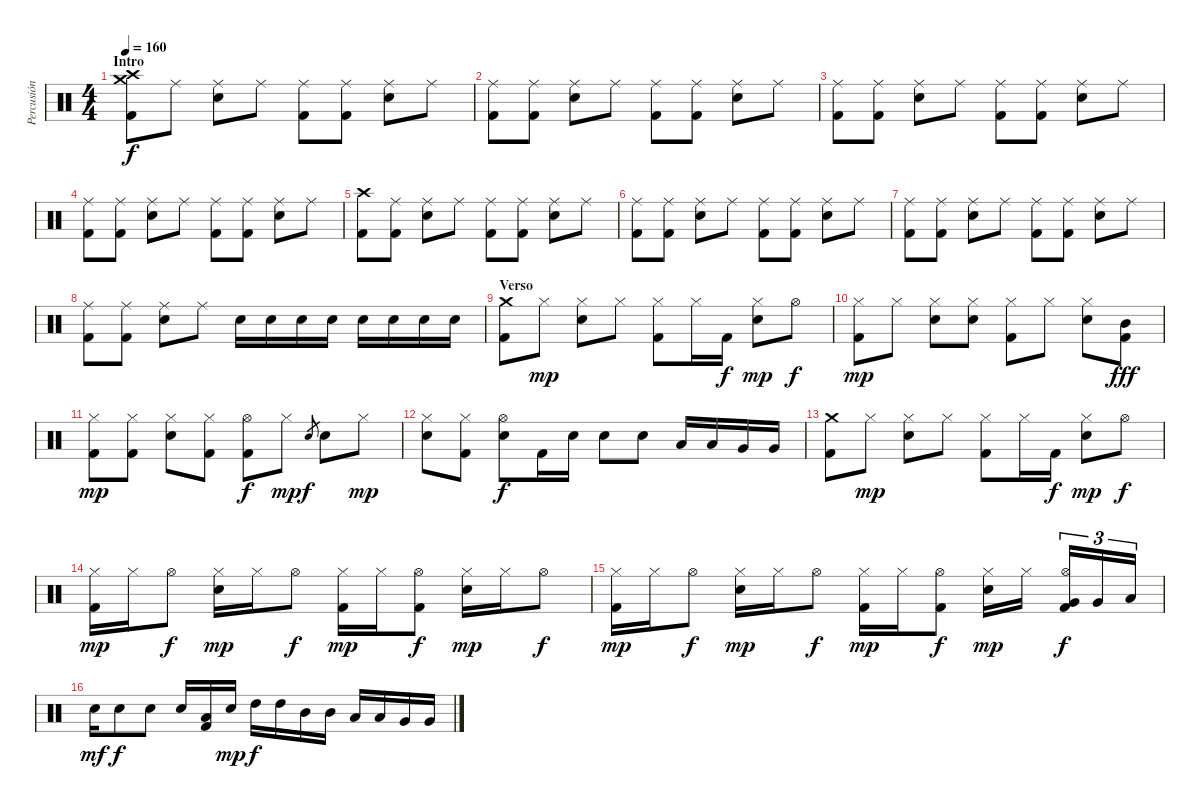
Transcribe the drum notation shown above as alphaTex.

\track ("Percusión" "Percusión") {instrument percussion}
\staff {score}
\articulation defaults
\ts (4 4)
\section ("" "Intro")
\tempo 160
\clef neutral
\ks c
("Crash medium (hit)" "Crash high (hit)" "Kick (hit) 2").8{dy f} "Ride (middle)".8 ("Ride (middle)" "Electric Snare (hit)").8 "Ride (middle)".8 ("Ride (middle)" "Kick (hit) 2").8 ("Ride (middle)" "Kick (hit) 2").8 ("Ride (middle)" "Electric Snare (hit)").8 "Ride (middle)".8 |
("Ride (middle)" "Kick (hit) 2").8 ("Ride (middle)" "Kick (hit) 2").8 ("Ride (middle)" "Electric Snare (hit)").8 "Ride (middle)".8 ("Ride (middle)" "Kick (hit) 2").8 ("Ride (middle)" "Kick (hit) 2").8 ("Ride (middle)" "Electric Snare (hit)").8 "Ride (middle)".8 |
("Ride (middle)" "Kick (hit) 2").8 ("Ride (middle)" "Kick (hit) 2").8 ("Ride (middle)" "Electric Snare (hit)").8 "Ride (middle)".8 ("Ride (middle)" "Kick (hit) 2").8 ("Ride (middle)" "Kick (hit) 2").8 ("Ride (middle)" "Electric Snare (hit)").8 "Ride (middle)".8 |
("Ride (middle)" "Kick (hit) 2").8 ("Ride (middle)" "Kick (hit) 2").8 ("Ride (middle)" "Electric Snare (hit)").8 "Ride (middle)".8 ("Ride (middle)" "Kick (hit) 2").8 ("Ride (middle)" "Kick (hit) 2").8 ("Ride (middle)" "Electric Snare (hit)").8 "Ride (middle)".8 |
("Crash high (hit)" "Kick (hit) 2").8 ("Ride (middle)" "Kick (hit) 2").8 ("Ride (middle)" "Electric Snare (hit)").8 "Ride (middle)".8 ("Ride (middle)" "Kick (hit) 2").8 ("Ride (middle)" "Kick (hit) 2").8 ("Ride (middle)" "Electric Snare (hit)").8 "Ride (middle)".8 |
("Ride (middle)" "Kick (hit) 2").8 ("Ride (middle)" "Kick (hit) 2").8 ("Ride (middle)" "Electric Snare (hit)").8 "Ride (middle)".8 ("Ride (middle)" "Kick (hit) 2").8 ("Ride (middle)" "Kick (hit) 2").8 ("Ride (middle)" "Electric Snare (hit)").8 "Ride (middle)".8 |
("Ride (middle)" "Kick (hit) 2").8 ("Ride (middle)" "Kick (hit) 2").8 ("Ride (middle)" "Electric Snare (hit)").8 "Ride (middle)".8 ("Ride (middle)" "Kick (hit) 2").8 ("Ride (middle)" "Kick (hit) 2").8 ("Ride (middle)" "Electric Snare (hit)").8 "Ride (middle)".8 |
("Ride (middle)" "Kick (hit) 2").8 ("Ride (middle)" "Kick (hit) 2").8 ("Ride (middle)" "Electric Snare (hit)").8 "Ride (middle)".8 "Electric Snare (hit)".16 "Electric Snare (hit)".16 "Electric Snare (hit)".16 "Electric Snare (hit)".16 "Electric Snare (hit)".16 "Electric Snare (hit)".16 "Electric Snare (hit)".16 "Electric Snare (hit)".16 |
\section ("" "Verso")
("Crash medium (hit)" "Kick (hit) 2").8 "Hi-Hat (closed)".8{dy mp} ("Hi-Hat (closed)" "Electric Snare (hit)").8 "Hi-Hat (closed)".8 ("Hi-Hat (closed)" "Kick (hit) 2").8 "Hi-Hat (closed)".16 "Kick (hit) 2".16{dy f} ("Hi-Hat (closed)" "Electric Snare (hit)").8{dy mp} "Hi-Hat (open)".8{dy f} |
("Hi-Hat (closed)" "Kick (hit) 2").8{dy mp} "Hi-Hat (closed)".8 ("Hi-Hat (closed)" "Electric Snare (hit)").8 ("Hi-Hat (closed)" "Electric Snare (hit)").8 ("Hi-Hat (closed)" "Kick (hit) 2").8 "Hi-Hat (closed)".8 ("Hi-Hat (closed)" "Electric Snare (hit)").8 ("Mid Tom (hit)" "Kick (hit) 2").8{dy fff} |
("Hi-Hat (closed)" "Kick (hit) 2").8{dy mp} ("Hi-Hat (closed)" "Kick (hit) 2").8 ("Hi-Hat (closed)" "Electric Snare (hit)").8 ("Hi-Hat (closed)" "Kick (hit) 2").8 ("Hi-Hat (open)" "Kick (hit) 2").8{dy f} "Hi-Hat (closed)".8{dy mp} "Electric Snare (hit)".8{gr dy f} "Electric Snare (hit)".8 "Hi-Hat (closed)".8{dy mp} |
("Hi-Hat (closed)" "Electric Snare (hit)").8 ("Hi-Hat (closed)" "Kick (hit) 2").8 ("Hi-Hat (open)" "Electric Snare (hit)").8{dy f} "Kick (hit) 2".16 "Electric Snare (hit)".16 "Electric Snare (hit)".8 "Electric Snare (hit)".8 "Low Tom (hit)".16 "Low Tom (hit)".16 "Very Low Tom (hit)".16 "Very Low Tom (hit)".16 |
("Crash medium (hit)" "Kick (hit) 2").8 "Hi-Hat (closed)".8{dy mp} ("Hi-Hat (closed)" "Electric Snare (hit)").8 "Hi-Hat (closed)".8 ("Hi-Hat (closed)" "Kick (hit) 2").8 "Hi-Hat (closed)".16 "Kick (hit) 2".16{dy f} ("Hi-Hat (closed)" "Electric Snare (hit)").8{dy mp} "Hi-Hat (open)".8{dy f} |
("Hi-Hat (closed)" "Kick (hit) 2").16{dy mp} "Hi-Hat (closed)".16 "Hi-Hat (open)".8{dy f} ("Hi-Hat (closed)" "Electric Snare (hit)").16{dy mp} "Hi-Hat (closed)".16 "Hi-Hat (open)".8{dy f} ("Hi-Hat (closed)" "Kick (hit) 2").16{dy mp} "Hi-Hat (closed)".16 ("Hi-Hat (open)" "Kick (hit) 2").8{dy f} ("Hi-Hat (closed)" "Electric Snare (hit)").16{dy mp} "Hi-Hat (closed)".16 "Hi-Hat (open)".8{dy f} |
("Hi-Hat (closed)" "Kick (hit) 2").16{dy mp} "Hi-Hat (closed)".16 "Hi-Hat (open)".8{dy f} ("Hi-Hat (closed)" "Electric Snare (hit)").16{dy mp} "Hi-Hat (closed)".16 "Hi-Hat (open)".8{dy f} ("Hi-Hat (closed)" "Kick (hit) 2").16{dy mp} "Hi-Hat (closed)".16 ("Hi-Hat (open)" "Kick (hit) 2").8{dy f} ("Hi-Hat (closed)" "Electric Snare (hit)").16{dy mp} "Hi-Hat (closed)".16 ("Very Low Tom (hit)" "Hi-Hat (open)" "Kick (hit) 2").16{tu (3 2) dy f} "Very Low Tom (hit)".16{tu (3 2)} "Low Floor Tom (hit)".16{tu (3 2)} |
"Electric Snare (hit)".16{dy mf} "Electric Snare (hit)".8{dy f} "Electric Snare (hit)".8 "Electric Snare (hit)".16 ("Low Tom (hit)" "Kick (hit) 2").16 "Electric Snare (hit)".16{dy mp} "High Tom (hit)".16{dy f} "High Tom (hit)".16 "Mid Tom (hit)".16 "Mid Tom (hit)".16 "Low Tom (hit)".16 "Low Tom (hit)".16 "Very Low Tom (hit)".16 "Very Low Tom (hit)".16
